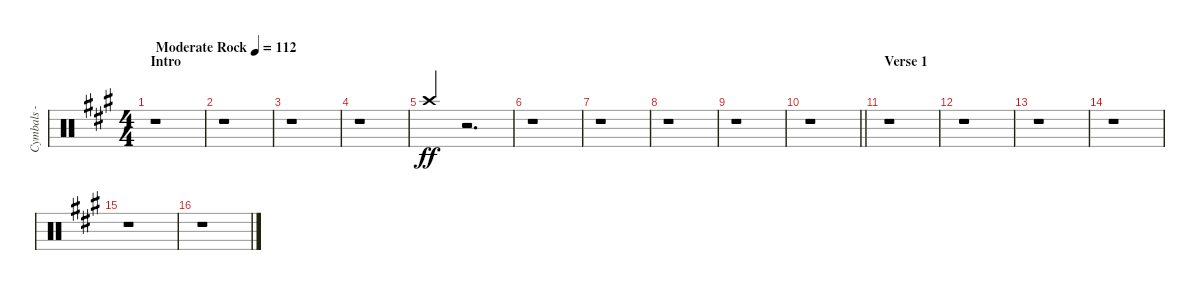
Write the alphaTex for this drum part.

\track ("Cymbals - crash" "Cymbals - ") {instrument percussion}
\staff {score}
\articulation defaults
\ts (4 4)
\section ("" "Intro")
\tempo (112 "Moderate Rock")
\clef neutral
\ks f#minor
r.1{dy ff volume 5} |
r.1 |
r.1 |
r.1 |
"Crash high (hit)".4{beam Up} r.2{d} |
r.1 |
r.1 |
r.1 |
r.1 |
\barLineRight lightlight
r.1 |
\section ("" "Verse 1")
r.1 |
r.1 |
r.1 |
r.1 |
r.1 |
r.1
